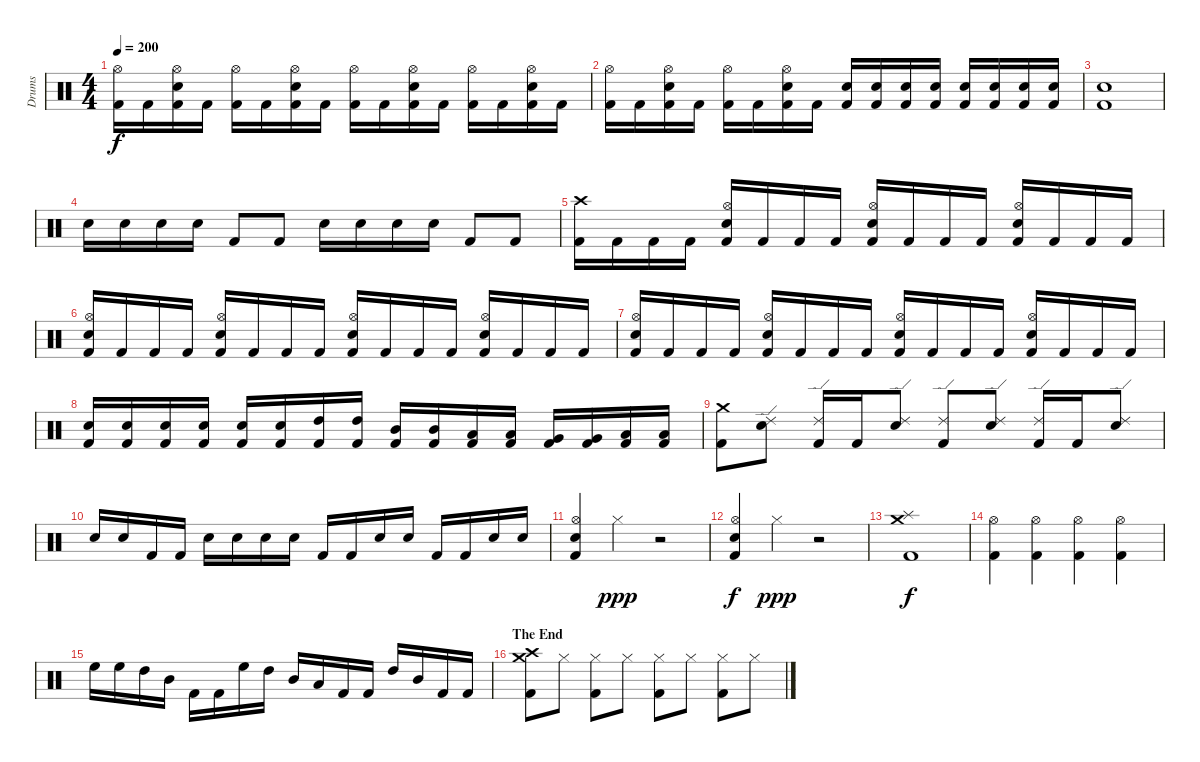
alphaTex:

\track ("Drums" "Drums") {instrument percussion}
\staff {score}
\articulation defaults
\ts (4 4)
\tempo 200
\clef neutral
\ks c
("Kick (hit) 2" "Hi-Hat (open)").16{dy f} "Kick (hit) 2".16 ("Kick (hit) 2" "Snare (hit) 2" "Hi-Hat (open)").16 "Kick (hit) 2".16 ("Kick (hit) 2" "Hi-Hat (open)").16 "Kick (hit) 2".16 ("Kick (hit) 2" "Snare (hit) 2" "Hi-Hat (open)").16 "Kick (hit) 2".16 ("Kick (hit) 2" "Hi-Hat (open)").16 "Kick (hit) 2".16 ("Kick (hit) 2" "Snare (hit) 2" "Hi-Hat (open)").16 "Kick (hit) 2".16 ("Kick (hit) 2" "Hi-Hat (open)").16 "Kick (hit) 2".16 ("Kick (hit) 2" "Snare (hit) 2" "Hi-Hat (open)").16 "Kick (hit) 2".16 |
("Kick (hit) 2" "Hi-Hat (open)").16 "Kick (hit) 2".16 ("Kick (hit) 2" "Snare (hit) 2" "Hi-Hat (open)").16 "Kick (hit) 2".16 ("Kick (hit) 2" "Hi-Hat (open)").16 "Kick (hit) 2".16 ("Kick (hit) 2" "Snare (hit) 2" "Hi-Hat (open)").16 "Kick (hit) 2".16 ("Kick (hit) 2" "Snare (hit) 2").16 ("Kick (hit) 2" "Snare (hit) 2").16 ("Kick (hit) 2" "Snare (hit) 2").16 ("Kick (hit) 2" "Snare (hit) 2").16 ("Kick (hit) 2" "Snare (hit) 2").16 ("Kick (hit) 2" "Snare (hit) 2").16 ("Kick (hit) 2" "Snare (hit) 2").16 ("Kick (hit) 2" "Snare (hit) 2").16 |
("Kick (hit) 2" "Snare (hit) 2").1 |
"Snare (hit) 2".16 "Snare (hit) 2".16 "Snare (hit) 2".16 "Snare (hit) 2".16 "Kick (hit) 2".8 "Kick (hit) 2".8 "Snare (hit) 2".16 "Snare (hit) 2".16 "Snare (hit) 2".16 "Snare (hit) 2".16 "Kick (hit) 2".8 "Kick (hit) 2".8 |
\section ("" "")
("Kick (hit) 2" "Crash high (hit)").16 "Kick (hit) 2".16 "Kick (hit) 2".16 "Kick (hit) 2".16 ("Kick (hit) 2" "Snare (hit) 2" "Hi-Hat (open)").16 "Kick (hit) 2".16 "Kick (hit) 2".16 "Kick (hit) 2".16 ("Kick (hit) 2" "Snare (hit) 2" "Hi-Hat (open)").16 "Kick (hit) 2".16 "Kick (hit) 2".16 "Kick (hit) 2".16 ("Kick (hit) 2" "Snare (hit) 2" "Hi-Hat (open)").16 "Kick (hit) 2".16 "Kick (hit) 2".16 "Kick (hit) 2".16 |
("Kick (hit) 2" "Snare (hit) 2" "Hi-Hat (open)").16 "Kick (hit) 2".16 "Kick (hit) 2".16 "Kick (hit) 2".16 ("Kick (hit) 2" "Snare (hit) 2" "Hi-Hat (open)").16 "Kick (hit) 2".16 "Kick (hit) 2".16 "Kick (hit) 2".16 ("Kick (hit) 2" "Snare (hit) 2" "Hi-Hat (open)").16 "Kick (hit) 2".16 "Kick (hit) 2".16 "Kick (hit) 2".16 ("Kick (hit) 2" "Snare (hit) 2" "Hi-Hat (open)").16 "Kick (hit) 2".16 "Kick (hit) 2".16 "Kick (hit) 2".16 |
("Kick (hit) 2" "Snare (hit) 2" "Hi-Hat (open)").16 "Kick (hit) 2".16 "Kick (hit) 2".16 "Kick (hit) 2".16 ("Kick (hit) 2" "Snare (hit) 2" "Hi-Hat (open)").16 "Kick (hit) 2".16 "Kick (hit) 2".16 "Kick (hit) 2".16 ("Kick (hit) 2" "Snare (hit) 2" "Hi-Hat (open)").16 "Kick (hit) 2".16 "Kick (hit) 2".16 "Kick (hit) 2".16 ("Kick (hit) 2" "Snare (hit) 2" "Hi-Hat (open)").16 "Kick (hit) 2".16 "Kick (hit) 2".16 "Kick (hit) 2".16 |
("Kick (hit) 2" "Snare (hit) 2").16 ("Kick (hit) 2" "Snare (hit) 2").16 ("Kick (hit) 2" "Snare (hit) 2").16 ("Kick (hit) 2" "Snare (hit) 2").16 ("Kick (hit) 2" "Snare (hit) 2").16 ("Kick (hit) 2" "Snare (hit) 2").16 ("Kick (hit) 2" "High Tom (hit)").16 ("Kick (hit) 2" "High Tom (hit)").16 ("Kick (hit) 2" "Mid Tom (hit)").16 ("Kick (hit) 2" "Mid Tom (hit)").16 ("Kick (hit) 2" "Low Tom (hit)").16 ("Kick (hit) 2" "Low Tom (hit)").16 ("Kick (hit) 2" "Very Low Tom (hit)").16 ("Kick (hit) 2" "Very Low Tom (hit)").16 ("Kick (hit) 2" "Low Floor Tom (hit)").16 ("Kick (hit) 2" "Low Floor Tom (hit)").16 |
("Kick (hit) 2" "Crash medium (hit)").8 ("Snare (hit) 2" "Ride (edge) 2").8 ("Kick (hit) 2" "Ride (edge) 2").16 "Kick (hit) 2".16 ("Snare (hit) 2" "Ride (edge) 2").8 ("Kick (hit) 2" "Ride (edge) 2").8 ("Snare (hit) 2" "Ride (edge) 2").8 ("Kick (hit) 2" "Ride (edge) 2").16 "Kick (hit) 2".16 ("Snare (hit) 2" "Ride (edge) 2").8 |
"Snare (hit) 2".16 "Snare (hit) 2".16 "Kick (hit) 2".16 "Kick (hit) 2".16 "Snare (hit) 2".16 "Snare (hit) 2".16 "Snare (hit) 2".16 "Snare (hit) 2".16 "Kick (hit) 2".16 "Kick (hit) 2".16 "Snare (hit) 2".16 "Snare (hit) 2".16 "Kick (hit) 2".16 "Kick (hit) 2".16 "Snare (hit) 2".16 "Snare (hit) 2".16 |
("Kick (hit) 2" "Snare (hit) 2" "Hi-Hat (open)").4 "Hi-Hat (closed)".4{dy ppp} r.2 |
("Kick (hit) 2" "Snare (hit) 2" "Hi-Hat (open)").4{dy f} "Hi-Hat (closed)".4{dy ppp} r.2 |
("Kick (hit) 2" "Splash (hit)" "Crash medium (hit)").1{dy f} |
("Kick (hit) 2" "Hi-Hat (open)").4 ("Kick (hit) 2" "Hi-Hat (open)").4 ("Kick (hit) 2" "Hi-Hat (open)").4 ("Kick (hit) 2" "Hi-Hat (open)").4 |
"High Floor Tom (hit)".16 "High Floor Tom (hit)".16 "High Tom (hit)".16 "Mid Tom (hit)".16 "Kick (hit) 2".16 "Kick (hit) 2".16 "High Floor Tom (hit)".16 "High Tom (hit)".16 "Mid Tom (hit)".16 "Low Tom (hit)".16 "Kick (hit) 2".16 "Kick (hit) 2".16 "High Tom (hit)".16 "Mid Tom (hit)".16 "Kick (hit) 2".16 "Kick (hit) 2".16 |
\section ("" "The End")
("Kick (hit) 2" "Crash high (hit)" "Crash medium (hit)").8 "Hi-Hat (closed)".8 ("Kick (hit) 2" "Hi-Hat (closed)").8 "Hi-Hat (closed)".8 ("Kick (hit) 2" "Hi-Hat (closed)").8 "Hi-Hat (closed)".8 ("Kick (hit) 2" "Hi-Hat (closed)").8 "Hi-Hat (closed)".8
